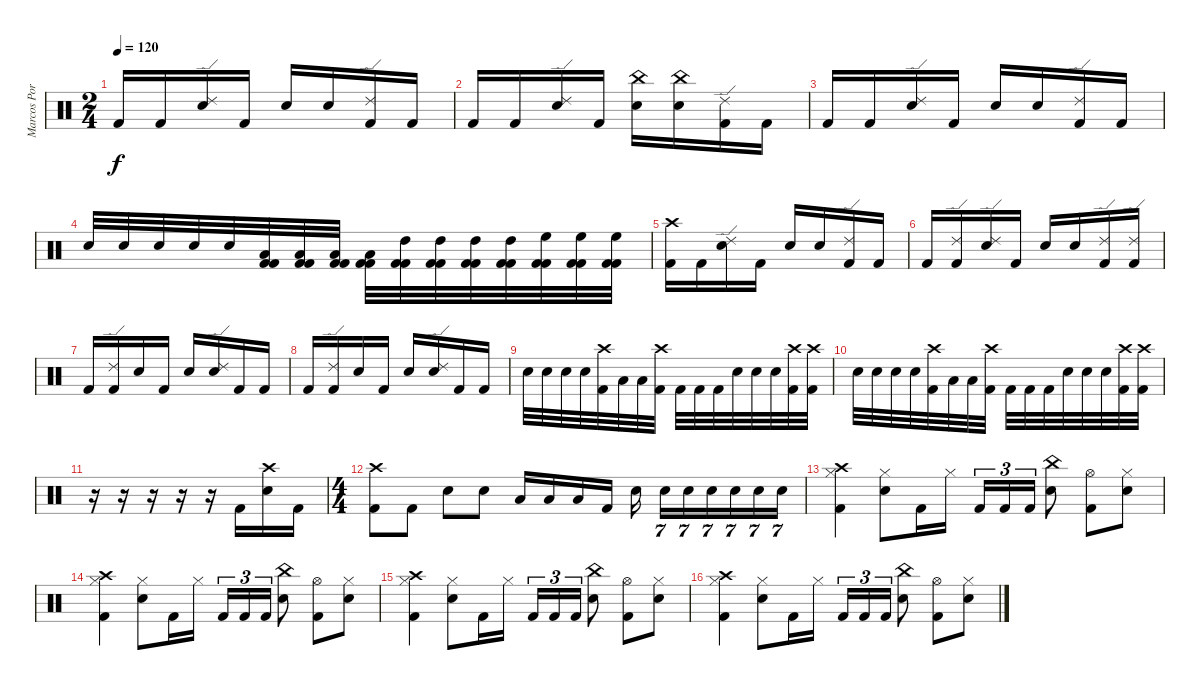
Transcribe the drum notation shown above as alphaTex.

\track ("Marcos Portinol" "Marcos Por") {instrument percussion}
\staff {score}
\articulation defaults
\ts (2 4)
\tempo 120
\clef neutral
\ks c "Kick (hit) 2".16{dy f} "Kick (hit) 2".16
("Electric Snare (hit)" "Ride (edge) 2").16 "Kick (hit) 2".16 "Electric Snare (hit)".16 "Electric Snare (hit)".16 ("Kick (hit) 2" "Ride (edge) 2").16 "Kick (hit) 2".16 |
"Kick (hit) 2".16 "Kick (hit) 2".16 ("Electric Snare (hit)" "Ride (edge) 2").16 "Kick (hit) 2".16 ("Electric Snare (hit)" "China (hit)").16 ("Electric Snare (hit)" "China (hit)").16 ("Kick (hit) 2" "Ride (edge) 2").16 "Kick (hit) 2".16 |
"Kick (hit) 2".16 "Kick (hit) 2".16 ("Electric Snare (hit)" "Ride (edge) 2").16 "Kick (hit) 2".16 "Electric Snare (hit)".16 "Electric Snare (hit)".16 ("Kick (hit) 2" "Ride (edge) 2").16 "Kick (hit) 2".16 |
"Electric Snare (hit)".32 "Electric Snare (hit)".32 "Electric Snare (hit)".32 "Electric Snare (hit)".32 "Electric Snare (hit)".32 ("Kick (hit) 2" "Kick (hit) 2" "Low Tom (hit)").32 ("Kick (hit) 2" "Kick (hit) 2" "Low Tom (hit)").32 ("Kick (hit) 2" "Kick (hit) 2" "Low Tom (hit)").32 ("Kick (hit) 2" "Kick (hit) 2" "Low Tom (hit)").32 ("Kick (hit) 2" "Kick (hit) 2" "High Tom (hit)").32 ("Kick (hit) 2" "Kick (hit) 2" "High Tom (hit)").32 ("Kick (hit) 2" "Kick (hit) 2" "High Tom (hit)").32 ("Kick (hit) 2" "Kick (hit) 2" "High Tom (hit)").32 ("Kick (hit) 2" "Kick (hit) 2" "High Floor Tom (hit)").32 ("Kick (hit) 2" "Kick (hit) 2" "High Floor Tom (hit)").32 ("Kick (hit) 2" "Kick (hit) 2" "High Floor Tom (hit)").32 |
("Kick (hit) 2" "Crash high (hit)").16 "Kick (hit) 2".16 ("Electric Snare (hit)" "Ride (edge) 2").16 "Kick (hit) 2".16 "Electric Snare (hit)".16 "Electric Snare (hit)".16 ("Kick (hit) 2" "Ride (edge) 2").16 "Kick (hit) 2".16 |
"Kick (hit) 2".16 ("Kick (hit) 2" "Ride (edge) 2").16 ("Electric Snare (hit)" "Ride (edge) 2").16 "Kick (hit) 2".16 "Electric Snare (hit)".16 "Electric Snare (hit)".16 ("Kick (hit) 2" "Ride (edge) 2").16 ("Kick (hit) 2" "Ride (edge) 2").16 |
"Kick (hit) 2".16 ("Kick (hit) 2" "Ride (edge) 2").16 "Electric Snare (hit)".16 "Kick (hit) 2".16 "Electric Snare (hit)".16 ("Electric Snare (hit)" "Ride (edge) 2").16 "Kick (hit) 2".16 "Kick (hit) 2".16 |
"Kick (hit) 2".16 ("Kick (hit) 2" "Ride (edge) 2").16 "Electric Snare (hit)".16 "Kick (hit) 2".16 "Electric Snare (hit)".16 ("Electric Snare (hit)" "Ride (edge) 2").16 "Kick (hit) 2".16 "Kick (hit) 2".16 |
"Electric Snare (hit)".32 "Electric Snare (hit)".32 "Electric Snare (hit)".32 "Electric Snare (hit)".32 ("Kick (hit) 2" "Crash high (hit)").32 "Low Tom (hit)".32 "Low Tom (hit)".32 ("Kick (hit) 2" "Crash high (hit)").32 "Kick (hit) 2".32 "Kick (hit) 2".32 "Kick (hit) 2".32 "Electric Snare (hit)".32 "Electric Snare (hit)".32 "Electric Snare (hit)".32 ("Crash high (hit)" "Kick (hit) 2").32 ("Crash high (hit)" "Kick (hit) 2").32 |
"Electric Snare (hit)".32 "Electric Snare (hit)".32 "Electric Snare (hit)".32 "Electric Snare (hit)".32 ("Kick (hit) 2" "Crash high (hit)").32 "Low Tom (hit)".32 "Low Tom (hit)".32 ("Kick (hit) 2" "Crash high (hit)").32 "Kick (hit) 2".32 "Kick (hit) 2".32 "Kick (hit) 2".32 "Electric Snare (hit)".32 "Electric Snare (hit)".32 "Electric Snare (hit)".32 ("Crash high (hit)" "Kick (hit) 2").32 ("Crash high (hit)" "Kick (hit) 2").32 |
r.16 r.16 r.16 r.16 r.16 "Kick (hit) 2".16 ("Electric Snare (hit)" "Crash high (hit)").16 "Kick (hit) 2".16 |
\ts (4 4)
("Kick (hit) 2" "Crash high (hit)").8 "Kick (hit) 2".8 "Electric Snare (hit)".8 "Electric Snare (hit)".8 "Low Tom (hit)".16 "Low Tom (hit)".16 "Low Tom (hit)".16 "Kick (hit) 2".16 "Electric Snare (hit)".16 "Electric Snare (hit)".16{tu (7 4)} "Electric Snare (hit)".16{tu (7 4)} "Electric Snare (hit)".16{tu (7 4)} "Electric Snare (hit)".16{tu (7 4)} "Electric Snare (hit)".16{tu (7 4)} "Electric Snare (hit)".16{tu (7 4)} |
("Kick (hit) 2" "Crash high (hit)" "Hi-Hat (closed)").4 ("Electric Snare (hit)" "Hi-Hat (closed)").8 "Kick (hit) 2".16 "Hi-Hat (closed)".16 "Kick (hit) 2".16{tu (3 2)} "Kick (hit) 2".16{tu (3 2)} "Kick (hit) 2".16{tu (3 2)} ("Electric Snare (hit)" "China (hit)").8 ("Kick (hit) 2" "Hi-Hat (open)").8 ("Electric Snare (hit)" "Hi-Hat (closed)").8 |
("Kick (hit) 2" "Crash high (hit)" "Hi-Hat (closed)").4 ("Electric Snare (hit)" "Hi-Hat (closed)").8 "Kick (hit) 2".16 "Hi-Hat (closed)".16 "Kick (hit) 2".16{tu (3 2)} "Kick (hit) 2".16{tu (3 2)} "Kick (hit) 2".16{tu (3 2)} ("Electric Snare (hit)" "China (hit)").8 ("Kick (hit) 2" "Hi-Hat (open)").8 ("Electric Snare (hit)" "Hi-Hat (closed)").8 |
("Kick (hit) 2" "Crash high (hit)" "Hi-Hat (closed)").4 ("Electric Snare (hit)" "Hi-Hat (closed)").8 "Kick (hit) 2".16 "Hi-Hat (closed)".16 "Kick (hit) 2".16{tu (3 2)} "Kick (hit) 2".16{tu (3 2)} "Kick (hit) 2".16{tu (3 2)} ("Electric Snare (hit)" "China (hit)").8 ("Kick (hit) 2" "Hi-Hat (open)").8 ("Electric Snare (hit)" "Hi-Hat (closed)").8 |
("Kick (hit) 2" "Crash high (hit)" "Hi-Hat (closed)").4 ("Electric Snare (hit)" "Hi-Hat (closed)").8 "Kick (hit) 2".16 "Hi-Hat (closed)".16 "Kick (hit) 2".16{tu (3 2)} "Kick (hit) 2".16{tu (3 2)} "Kick (hit) 2".16{tu (3 2)} ("Electric Snare (hit)" "China (hit)").8 ("Kick (hit) 2" "Hi-Hat (open)").8 ("Electric Snare (hit)" "Hi-Hat (closed)").8
